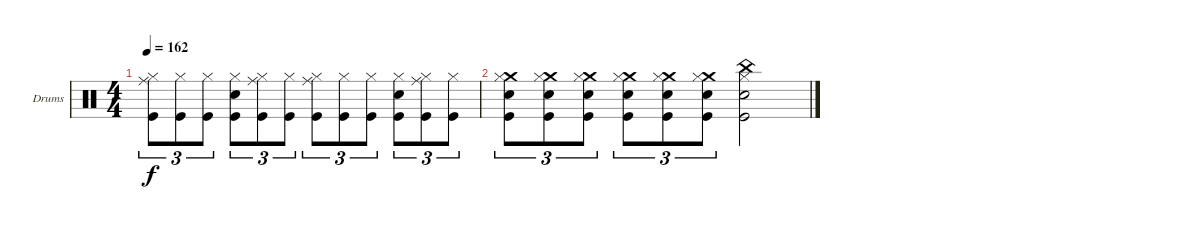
\bracketExtendMode groupsimilarinstruments
\firstSystemTrackNameOrientation horizontal
\otherSystemsTrackNameOrientation horizontal
\track ("Drumkit" "Drums") {instrument percussion}
\staff {score}
\articulation defaults
\ts (4 4)
\tempo 162
\clef neutral
\ks c
("Kick (hit)" "Ride (middle)" "Hi-Hat (closed)").8{tu (3 2) dy f} ("Kick (hit)" "Hi-Hat (closed)").8{tu (3 2)} ("Kick (hit)" "Hi-Hat (closed)").8{tu (3 2)} ("Kick (hit)" "Snare (hit) 2" "Hi-Hat (closed)").8{tu (3 2)} ("Kick (hit)" "Ride (middle)" "Hi-Hat (closed)").8{tu (3 2)} ("Kick (hit)" "Hi-Hat (closed)").8{tu (3 2)} ("Kick (hit)" "Ride (middle)" "Hi-Hat (closed)").8{tu (3 2)} ("Kick (hit)" "Hi-Hat (closed)").8{tu (3 2)} ("Kick (hit)" "Hi-Hat (closed)").8{tu (3 2)} ("Kick (hit)" "Snare (hit) 2" "Hi-Hat (closed)").8{tu (3 2)} ("Kick (hit)" "Ride (middle)" "Hi-Hat (closed)").8{tu (3 2)} ("Kick (hit)" "Hi-Hat (closed)").8{tu (3 2)} |
("Kick (hit)" "Snare (hit) 2" "Crash medium (hit)" "Hi-Hat (closed)").8{tu (3 2)} ("Kick (hit)" "Snare (hit) 2" "Crash medium (hit)" "Hi-Hat (closed)").8{tu (3 2)} ("Kick (hit)" "Snare (hit) 2" "Crash medium (hit)" "Hi-Hat (closed)").8{tu (3 2)} ("Kick (hit)" "Snare (hit) 2" "Crash medium (hit)" "Hi-Hat (closed)").8{tu (3 2)} ("Kick (hit)" "Snare (hit) 2" "Crash medium (hit)" "Hi-Hat (closed)").8{tu (3 2)} ("Kick (hit)" "Snare (hit) 2" "Crash medium (hit)" "Hi-Hat (closed)").8{tu (3 2)} ("Kick (hit)" "Snare (hit) 2" "China (hit)" "Hi-Hat (closed)").2
